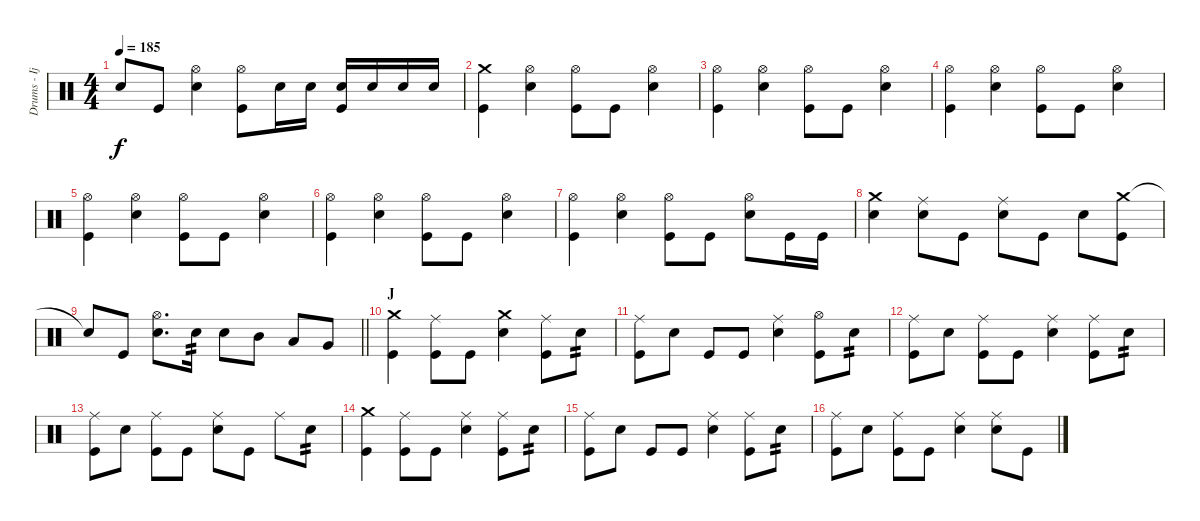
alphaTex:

\track ("Drums - Ijichi" "Drums - Ij") {instrument percussion}
\staff {score}
\articulation defaults
\ts (4 4)
\tempo 185
\clef neutral
\ks c "Snare (hit)"{t}.8{dy f} "Kick (hit)".8
("Hi-Hat (open)" "Electric Snare (hit)").4 ("Hi-Hat (open)" "Kick (hit)").8 "Electric Snare (hit)".16 "Electric Snare (hit)".16 ("Electric Snare (hit)" "Kick (hit)").16 "Electric Snare (hit)".16 "Electric Snare (hit)".16 "Electric Snare (hit)".16 |
("Crash medium (hit)" "Kick (hit)").4 ("Hi-Hat (open)" "Electric Snare (hit)").4 ("Hi-Hat (open)" "Kick (hit)").8 "Kick (hit)".8 ("Hi-Hat (open)" "Electric Snare (hit)").4 |
("Hi-Hat (open)" "Kick (hit)").4 ("Hi-Hat (open)" "Electric Snare (hit)").4 ("Hi-Hat (open)" "Kick (hit)").8 "Kick (hit)".8 ("Hi-Hat (open)" "Electric Snare (hit)").4 |
("Hi-Hat (open)" "Kick (hit)").4 ("Hi-Hat (open)" "Electric Snare (hit)").4 ("Hi-Hat (open)" "Kick (hit)").8 "Kick (hit)".8 ("Hi-Hat (open)" "Electric Snare (hit)").4 |
("Hi-Hat (open)" "Kick (hit)").4 ("Hi-Hat (open)" "Electric Snare (hit)").4 ("Hi-Hat (open)" "Kick (hit)").8 "Kick (hit)".8 ("Hi-Hat (open)" "Electric Snare (hit)").4 |
("Hi-Hat (open)" "Kick (hit)").4 ("Hi-Hat (open)" "Electric Snare (hit)").4 ("Hi-Hat (open)" "Kick (hit)").8 "Kick (hit)".8 ("Hi-Hat (open)" "Electric Snare (hit)").4 |
("Hi-Hat (open)" "Kick (hit)").4 ("Hi-Hat (open)" "Electric Snare (hit)").4 ("Hi-Hat (open)" "Kick (hit)").8 "Kick (hit)".8 ("Hi-Hat (open)" "Electric Snare (hit)").8 "Kick (hit)".16 "Kick (hit)".16 |
("Crash medium (hit)" "Electric Snare (hit)").4 ("Ride (middle)" "Electric Snare (hit)").8 "Kick (hit)".8 ("Ride (middle)" "Electric Snare (hit)").8 "Kick (hit)".8 "Electric Snare (hit)".8 ("Crash medium (hit)" "Kick (hit)").8 |
\barLineRight lightlight "Snare (hit)"{t}.8 "Kick (hit)".8
("Hi-Hat (open)" "Electric Snare (hit)").8{d} "Electric Snare (hit)".16{tp 2} "Electric Snare (hit)".8 "Mid Tom (hit)".8 "Low Tom (hit)".8 "Very Low Tom (hit)".8 |
\section ("" "J")
("Crash medium (hit)" "Kick (hit)").4 ("Ride (middle)" "Kick (hit)").8 "Kick (hit)".8 ("Crash medium (hit)" "Electric Snare (hit)").4 ("Ride (middle)" "Kick (hit)").8 "Electric Snare (hit)".8{tp 2} |
("Ride (middle)" "Kick (hit)").8 "Electric Snare (hit)".8 "Kick (hit)".8 "Kick (hit)".8 ("Ride (middle)" "Electric Snare (hit)").4 ("Hi-Hat (open)" "Kick (hit)").8 "Electric Snare (hit)".8{tp 2} |
("Ride (middle)" "Kick (hit)").8 "Electric Snare (hit)".8 ("Ride (middle)" "Kick (hit)").8 "Kick (hit)".8 ("Ride (middle)" "Electric Snare (hit)").4 ("Ride (middle)" "Kick (hit)").8 "Electric Snare (hit)".8{tp 2} |
("Ride (middle)" "Kick (hit)").8 "Electric Snare (hit)".8 ("Ride (middle)" "Kick (hit)").8 "Kick (hit)".8 ("Ride (middle)" "Electric Snare (hit)").8 "Kick (hit)".8 "Ride (middle)".8 "Electric Snare (hit)".8{tp 2} |
("Crash medium (hit)" "Kick (hit)").4 ("Ride (middle)" "Kick (hit)").8 "Kick (hit)".8 ("Ride (middle)" "Electric Snare (hit)").4 ("Ride (middle)" "Kick (hit)").8 "Electric Snare (hit)".8{tp 2} |
("Ride (middle)" "Kick (hit)").8 "Electric Snare (hit)".8 "Kick (hit)".8 "Kick (hit)".8 ("Ride (middle)" "Electric Snare (hit)").4 ("Ride (middle)" "Kick (hit)").8 "Electric Snare (hit)".8{tp 2} |
("Ride (middle)" "Kick (hit)").8 "Electric Snare (hit)".8 ("Ride (middle)" "Kick (hit)").8 "Kick (hit)".8 ("Ride (middle)" "Electric Snare (hit)").4 ("Ride (middle)" "Electric Snare (hit)").8 "Kick (hit)".8
